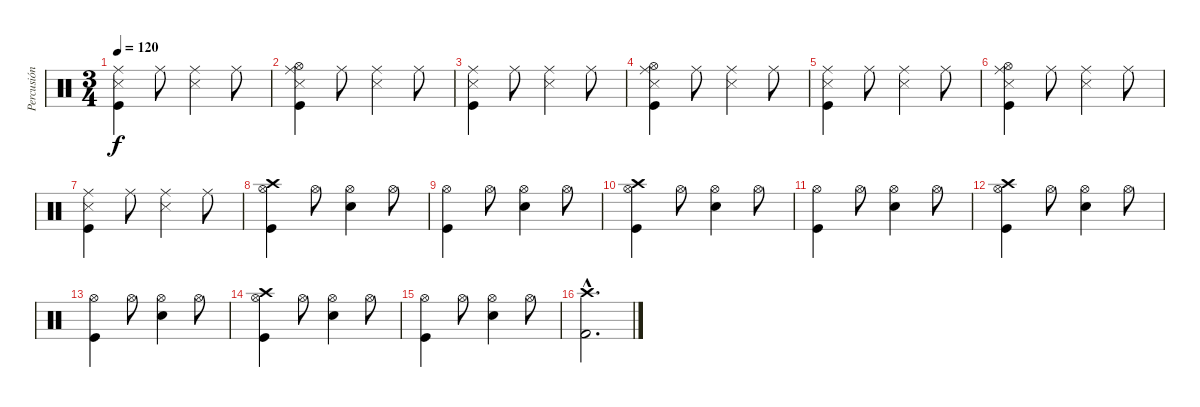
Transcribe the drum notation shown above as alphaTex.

\track ("Percusión" "Percusión") {instrument percussion}
\staff {score}
\articulation defaults
\ts (3 4)
\tempo 120
\clef neutral
\ks c
("Kick (hit)" "Snare (side stick) 3" "Ride (middle)").4{dy f} "Ride (middle)".8 ("Snare (side stick) 3" "Ride (middle)").4 "Ride (middle)".8 |
("Kick (hit)" "Hi-Hat (open)" "Snare (side stick) 3" "Ride (middle)").4 "Ride (middle)".8 ("Snare (side stick) 3" "Ride (middle)").4 "Ride (middle)".8 |
("Kick (hit)" "Snare (side stick) 3" "Ride (middle)").4 "Ride (middle)".8 ("Snare (side stick) 3" "Ride (middle)").4 "Ride (middle)".8 |
("Kick (hit)" "Hi-Hat (open)" "Snare (side stick) 3" "Ride (middle)").4 "Ride (middle)".8 ("Snare (side stick) 3" "Ride (middle)").4 "Ride (middle)".8 |
("Kick (hit)" "Snare (side stick) 3" "Ride (middle)").4 "Ride (middle)".8 ("Snare (side stick) 3" "Ride (middle)").4 "Ride (middle)".8 |
("Kick (hit)" "Hi-Hat (open)" "Snare (side stick) 3" "Ride (middle)").4 "Ride (middle)".8 ("Snare (side stick) 3" "Ride (middle)").4 "Ride (middle)".8 |
("Kick (hit)" "Snare (side stick) 3" "Ride (middle)").4 "Ride (middle)".8 ("Snare (side stick) 3" "Ride (middle)").4 "Ride (middle)".8 |
("Kick (hit)" "Hi-Hat (open)" "Crash high (hit)").4 "Hi-Hat (open)".8 ("Snare (hit) 2" "Hi-Hat (open)").4 "Hi-Hat (open)".8 |
("Kick (hit)" "Hi-Hat (open)").4 "Hi-Hat (open)".8 ("Snare (hit) 2" "Hi-Hat (open)").4 "Hi-Hat (open)".8 |
("Kick (hit)" "Hi-Hat (open)" "Crash high (hit)").4 "Hi-Hat (open)".8 ("Snare (hit) 2" "Hi-Hat (open)").4 "Hi-Hat (open)".8 |
("Kick (hit)" "Hi-Hat (open)").4 "Hi-Hat (open)".8 ("Snare (hit) 2" "Hi-Hat (open)").4 "Hi-Hat (open)".8 |
("Kick (hit)" "Hi-Hat (open)" "Crash high (hit)").4 "Hi-Hat (open)".8 ("Snare (hit) 2" "Hi-Hat (open)").4 "Hi-Hat (open)".8 |
("Kick (hit)" "Hi-Hat (open)").4 "Hi-Hat (open)".8 ("Snare (hit) 2" "Hi-Hat (open)").4 "Hi-Hat (open)".8 |
("Kick (hit)" "Hi-Hat (open)" "Crash high (hit)").4 "Hi-Hat (open)".8 ("Snare (hit) 2" "Hi-Hat (open)").4 "Hi-Hat (open)".8 |
("Kick (hit)" "Hi-Hat (open)").4 "Hi-Hat (open)".8 ("Snare (hit) 2" "Hi-Hat (open)").4 "Hi-Hat (open)".8 |
("Kick (hit) 2"{hac} "Crash high (hit)"{hac}).2{d}
